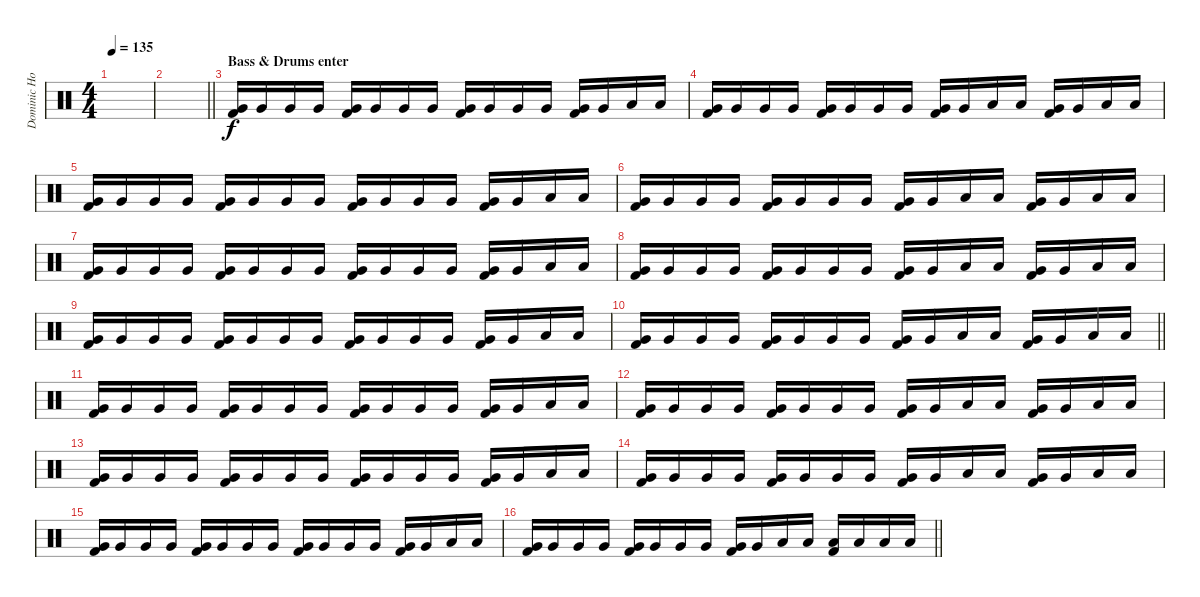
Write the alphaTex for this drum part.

\track ("Dominic Howard (Drums)" "Dominic Ho") {instrument percussion}
\staff {score}
\articulation defaults
\ts (4 4)
\tempo 135
\clef neutral
\ks c
|
\barLineRight lightlight
|
\section ("" "Bass & Drums enter")
("Kick (hit) 2" "Very Low Tom (hit)").16 "Very Low Tom (hit)".16 "Very Low Tom (hit)".16 "Very Low Tom (hit)".16 ("Kick (hit) 2" "Very Low Tom (hit)").16 "Very Low Tom (hit)".16 "Very Low Tom (hit)".16 "Very Low Tom (hit)".16 ("Kick (hit) 2" "Very Low Tom (hit)").16 "Very Low Tom (hit)".16 "Very Low Tom (hit)".16 "Very Low Tom (hit)".16 ("Kick (hit) 2" "Very Low Tom (hit)").16 "Very Low Tom (hit)".16 "Low Tom (hit)".16 "Low Tom (hit)".16 |
("Kick (hit) 2" "Very Low Tom (hit)").16 "Very Low Tom (hit)".16 "Very Low Tom (hit)".16 "Very Low Tom (hit)".16 ("Kick (hit) 2" "Very Low Tom (hit)").16 "Very Low Tom (hit)".16 "Very Low Tom (hit)".16 "Very Low Tom (hit)".16 ("Kick (hit) 2" "Very Low Tom (hit)").16 "Very Low Tom (hit)".16 "Low Tom (hit)".16 "Low Tom (hit)".16 ("Kick (hit) 2" "Very Low Tom (hit)").16 "Very Low Tom (hit)".16 "Low Tom (hit)".16 "Low Tom (hit)".16 |
("Kick (hit) 2" "Very Low Tom (hit)").16 "Very Low Tom (hit)".16 "Very Low Tom (hit)".16 "Very Low Tom (hit)".16 ("Kick (hit) 2" "Very Low Tom (hit)").16 "Very Low Tom (hit)".16 "Very Low Tom (hit)".16 "Very Low Tom (hit)".16 ("Kick (hit) 2" "Very Low Tom (hit)").16 "Very Low Tom (hit)".16 "Very Low Tom (hit)".16 "Very Low Tom (hit)".16 ("Kick (hit) 2" "Very Low Tom (hit)").16 "Very Low Tom (hit)".16 "Low Tom (hit)".16 "Low Tom (hit)".16 |
("Kick (hit) 2" "Very Low Tom (hit)").16 "Very Low Tom (hit)".16 "Very Low Tom (hit)".16 "Very Low Tom (hit)".16 ("Kick (hit) 2" "Very Low Tom (hit)").16 "Very Low Tom (hit)".16 "Very Low Tom (hit)".16 "Very Low Tom (hit)".16 ("Kick (hit) 2" "Very Low Tom (hit)").16 "Very Low Tom (hit)".16 "Low Tom (hit)".16 "Low Tom (hit)".16 ("Kick (hit) 2" "Very Low Tom (hit)").16 "Very Low Tom (hit)".16 "Low Tom (hit)".16 "Low Tom (hit)".16 |
("Kick (hit) 2" "Very Low Tom (hit)").16 "Very Low Tom (hit)".16 "Very Low Tom (hit)".16 "Very Low Tom (hit)".16 ("Kick (hit) 2" "Very Low Tom (hit)").16 "Very Low Tom (hit)".16 "Very Low Tom (hit)".16 "Very Low Tom (hit)".16 ("Kick (hit) 2" "Very Low Tom (hit)").16 "Very Low Tom (hit)".16 "Very Low Tom (hit)".16 "Very Low Tom (hit)".16 ("Kick (hit) 2" "Very Low Tom (hit)").16 "Very Low Tom (hit)".16 "Low Tom (hit)".16 "Low Tom (hit)".16 |
("Kick (hit) 2" "Very Low Tom (hit)").16 "Very Low Tom (hit)".16 "Very Low Tom (hit)".16 "Very Low Tom (hit)".16 ("Kick (hit) 2" "Very Low Tom (hit)").16 "Very Low Tom (hit)".16 "Very Low Tom (hit)".16 "Very Low Tom (hit)".16 ("Kick (hit) 2" "Very Low Tom (hit)").16 "Very Low Tom (hit)".16 "Low Tom (hit)".16 "Low Tom (hit)".16 ("Kick (hit) 2" "Very Low Tom (hit)").16 "Very Low Tom (hit)".16 "Low Tom (hit)".16 "Low Tom (hit)".16 |
("Kick (hit) 2" "Very Low Tom (hit)").16 "Very Low Tom (hit)".16 "Very Low Tom (hit)".16 "Very Low Tom (hit)".16 ("Kick (hit) 2" "Very Low Tom (hit)").16 "Very Low Tom (hit)".16 "Very Low Tom (hit)".16 "Very Low Tom (hit)".16 ("Kick (hit) 2" "Very Low Tom (hit)").16 "Very Low Tom (hit)".16 "Very Low Tom (hit)".16 "Very Low Tom (hit)".16 ("Kick (hit) 2" "Very Low Tom (hit)").16 "Very Low Tom (hit)".16 "Low Tom (hit)".16 "Low Tom (hit)".16 |
\barLineRight lightlight
("Kick (hit) 2" "Very Low Tom (hit)").16 "Very Low Tom (hit)".16 "Very Low Tom (hit)".16 "Very Low Tom (hit)".16 ("Kick (hit) 2" "Very Low Tom (hit)").16 "Very Low Tom (hit)".16 "Very Low Tom (hit)".16 "Very Low Tom (hit)".16 ("Kick (hit) 2" "Very Low Tom (hit)").16 "Very Low Tom (hit)".16 "Low Tom (hit)".16 "Low Tom (hit)".16 ("Kick (hit) 2" "Very Low Tom (hit)").16 "Very Low Tom (hit)".16 "Low Tom (hit)".16 "Low Tom (hit)".16 |
("Kick (hit) 2" "Very Low Tom (hit)").16 "Very Low Tom (hit)".16 "Very Low Tom (hit)".16 "Very Low Tom (hit)".16 ("Kick (hit) 2" "Very Low Tom (hit)").16 "Very Low Tom (hit)".16 "Very Low Tom (hit)".16 "Very Low Tom (hit)".16 ("Kick (hit) 2" "Very Low Tom (hit)").16 "Very Low Tom (hit)".16 "Very Low Tom (hit)".16 "Very Low Tom (hit)".16 ("Kick (hit) 2" "Very Low Tom (hit)").16 "Very Low Tom (hit)".16 "Low Tom (hit)".16 "Low Tom (hit)".16 |
("Kick (hit) 2" "Very Low Tom (hit)").16 "Very Low Tom (hit)".16 "Very Low Tom (hit)".16 "Very Low Tom (hit)".16 ("Kick (hit) 2" "Very Low Tom (hit)").16 "Very Low Tom (hit)".16 "Very Low Tom (hit)".16 "Very Low Tom (hit)".16 ("Kick (hit) 2" "Very Low Tom (hit)").16 "Very Low Tom (hit)".16 "Low Tom (hit)".16 "Low Tom (hit)".16 ("Kick (hit) 2" "Very Low Tom (hit)").16 "Very Low Tom (hit)".16 "Low Tom (hit)".16 "Low Tom (hit)".16 |
("Kick (hit) 2" "Very Low Tom (hit)").16 "Very Low Tom (hit)".16 "Very Low Tom (hit)".16 "Very Low Tom (hit)".16 ("Kick (hit) 2" "Very Low Tom (hit)").16 "Very Low Tom (hit)".16 "Very Low Tom (hit)".16 "Very Low Tom (hit)".16 ("Kick (hit) 2" "Very Low Tom (hit)").16 "Very Low Tom (hit)".16 "Very Low Tom (hit)".16 "Very Low Tom (hit)".16 ("Kick (hit) 2" "Very Low Tom (hit)").16 "Very Low Tom (hit)".16 "Low Tom (hit)".16 "Low Tom (hit)".16 |
("Kick (hit) 2" "Very Low Tom (hit)").16 "Very Low Tom (hit)".16 "Very Low Tom (hit)".16 "Very Low Tom (hit)".16 ("Kick (hit) 2" "Very Low Tom (hit)").16 "Very Low Tom (hit)".16 "Very Low Tom (hit)".16 "Very Low Tom (hit)".16 ("Kick (hit) 2" "Very Low Tom (hit)").16 "Very Low Tom (hit)".16 "Low Tom (hit)".16 "Low Tom (hit)".16 ("Kick (hit) 2" "Very Low Tom (hit)").16 "Very Low Tom (hit)".16 "Low Tom (hit)".16 "Low Tom (hit)".16 |
("Kick (hit) 2" "Very Low Tom (hit)").16 "Very Low Tom (hit)".16 "Very Low Tom (hit)".16 "Very Low Tom (hit)".16 ("Kick (hit) 2" "Very Low Tom (hit)").16 "Very Low Tom (hit)".16 "Very Low Tom (hit)".16 "Very Low Tom (hit)".16 ("Kick (hit) 2" "Very Low Tom (hit)").16 "Very Low Tom (hit)".16 "Very Low Tom (hit)".16 "Very Low Tom (hit)".16 ("Kick (hit) 2" "Very Low Tom (hit)").16 "Very Low Tom (hit)".16 "Low Tom (hit)".16 "Low Tom (hit)".16 |
\barLineRight lightlight
("Kick (hit) 2" "Very Low Tom (hit)").16 "Very Low Tom (hit)".16 "Very Low Tom (hit)".16 "Very Low Tom (hit)".16 ("Kick (hit) 2" "Very Low Tom (hit)").16 "Very Low Tom (hit)".16 "Very Low Tom (hit)".16 "Very Low Tom (hit)".16 ("Kick (hit) 2" "Very Low Tom (hit)").16 "Very Low Tom (hit)".16 "Low Tom (hit)".16 "Low Tom (hit)".16 ("Kick (hit) 2" "Low Tom (hit)").16 "Low Tom (hit)".16 "Low Tom (hit)".16 "Low Tom (hit)".16
